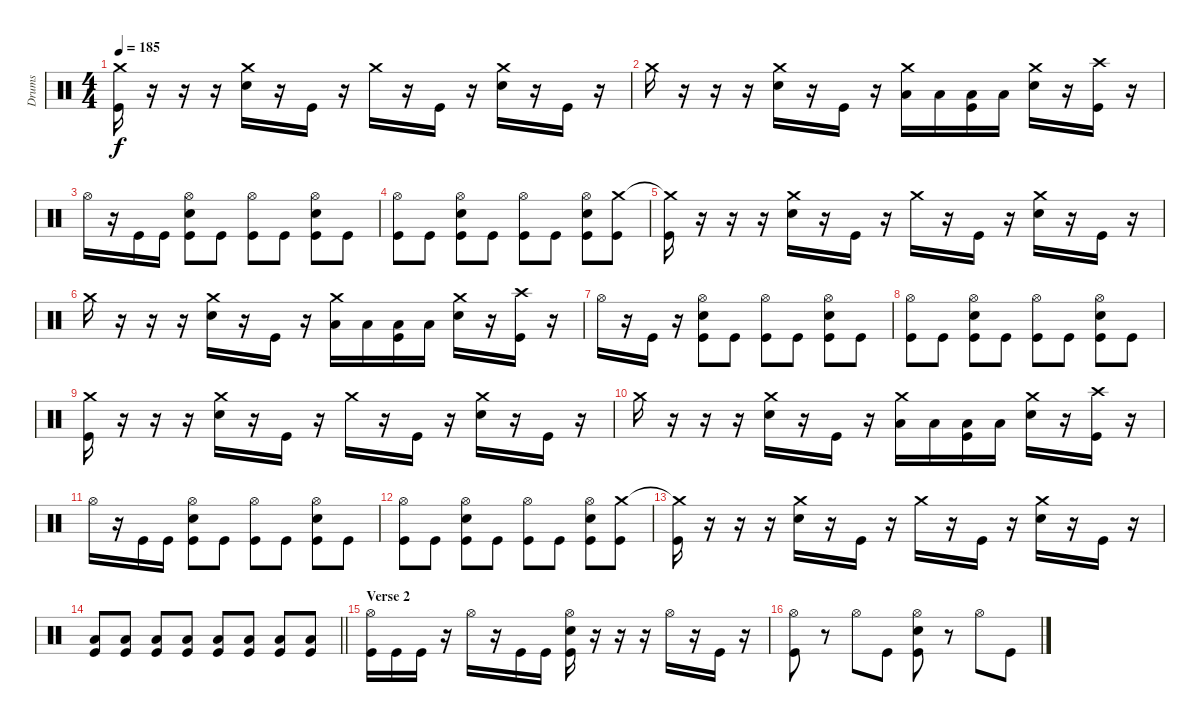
\track ("Drums" "Drums") {instrument percussion}
\staff {score}
\articulation defaults
\ts (4 4)
\tempo 185
\clef neutral
\ks c
("Crash medium (hit)" "Kick (hit)").16{dy f} r.16 r.16 r.16 ("Crash medium (hit)" "Snare (hit) 2").16 r.16 "Kick (hit)".16 r.16 "Crash medium (hit)".16 r.16 "Kick (hit)".16 r.16 ("Crash medium (hit)" "Snare (hit) 2").16 r.16 "Kick (hit)".16 r.16 |
"Crash medium (hit)".16 r.16 r.16 r.16 ("Crash medium (hit)" "Snare (hit) 2").16 r.16 "Kick (hit)".16 r.16 ("Crash medium (hit)" "Low Floor Tom (hit)").16 "Low Floor Tom (hit)".16 ("Low Floor Tom (hit)" "Kick (hit)").16 "Low Floor Tom (hit)".16 ("Crash medium (hit)" "Snare (hit) 2").16 r.16 ("Crash high (hit)" "Kick (hit)").16 r.16 |
"Hi-Hat (open)".16 r.16 "Kick (hit)".16 "Kick (hit)".16 ("Hi-Hat (open)" "Snare (hit) 2" "Kick (hit)").8 "Kick (hit)".8 ("Hi-Hat (open)" "Kick (hit)").8 "Kick (hit)".8 ("Hi-Hat (open)" "Snare (hit) 2" "Kick (hit)").8 "Kick (hit)".8 |
("Hi-Hat (open)" "Kick (hit)").8 "Kick (hit)".8 ("Hi-Hat (open)" "Snare (hit) 2" "Kick (hit)").8 "Kick (hit)".8 ("Hi-Hat (open)" "Kick (hit)").8 "Kick (hit)".8 ("Hi-Hat (open)" "Snare (hit) 2" "Kick (hit)").8 ("Crash medium (hit)" "Kick (hit)").8 |
("Crash medium (hit)"{t} "Kick (hit)").16 r.16 r.16 r.16 ("Crash medium (hit)" "Snare (hit) 2").16 r.16 "Kick (hit)".16 r.16 "Crash medium (hit)".16 r.16 "Kick (hit)".16 r.16 ("Crash medium (hit)" "Snare (hit) 2").16 r.16 "Kick (hit)".16 r.16 |
"Crash medium (hit)".16 r.16 r.16 r.16 ("Crash medium (hit)" "Snare (hit) 2").16 r.16 "Kick (hit)".16 r.16 ("Crash medium (hit)" "Low Floor Tom (hit)").16 "Low Floor Tom (hit)".16 ("Low Floor Tom (hit)" "Kick (hit)").16 "Low Floor Tom (hit)".16 ("Crash medium (hit)" "Snare (hit) 2").16 r.16 ("Crash high (hit)" "Kick (hit)").16 r.16 |
"Hi-Hat (open)".16 r.16 "Kick (hit)".16 r.16 ("Hi-Hat (open)" "Snare (hit) 2" "Kick (hit)").8 "Kick (hit)".8 ("Hi-Hat (open)" "Kick (hit)").8 "Kick (hit)".8 ("Hi-Hat (open)" "Snare (hit) 2" "Kick (hit)").8 "Kick (hit)".8 |
("Hi-Hat (open)" "Kick (hit)").8 "Kick (hit)".8 ("Hi-Hat (open)" "Snare (hit) 2" "Kick (hit)").8 "Kick (hit)".8 ("Hi-Hat (open)" "Kick (hit)").8 "Kick (hit)".8 ("Hi-Hat (open)" "Snare (hit) 2" "Kick (hit)").8 "Kick (hit)".8 |
("Crash medium (hit)" "Kick (hit)").16 r.16 r.16 r.16 ("Crash medium (hit)" "Snare (hit) 2").16 r.16 "Kick (hit)".16 r.16 "Crash medium (hit)".16 r.16 "Kick (hit)".16 r.16 ("Crash medium (hit)" "Snare (hit) 2").16 r.16 "Kick (hit)".16 r.16 |
"Crash medium (hit)".16 r.16 r.16 r.16 ("Crash medium (hit)" "Snare (hit) 2").16 r.16 "Kick (hit)".16 r.16 ("Crash medium (hit)" "Low Floor Tom (hit)").16 "Low Floor Tom (hit)".16 ("Low Floor Tom (hit)" "Kick (hit)").16 "Low Floor Tom (hit)".16 ("Crash medium (hit)" "Snare (hit) 2").16 r.16 ("Crash high (hit)" "Kick (hit)").16 r.16 |
"Hi-Hat (open)".16 r.16 "Kick (hit)".16 "Kick (hit)".16 ("Hi-Hat (open)" "Snare (hit) 2" "Kick (hit)").8 "Kick (hit)".8 ("Hi-Hat (open)" "Kick (hit)").8 "Kick (hit)".8 ("Hi-Hat (open)" "Snare (hit) 2" "Kick (hit)").8 "Kick (hit)".8 |
("Hi-Hat (open)" "Kick (hit)").8 "Kick (hit)".8 ("Hi-Hat (open)" "Snare (hit) 2" "Kick (hit)").8 "Kick (hit)".8 ("Hi-Hat (open)" "Kick (hit)").8 "Kick (hit)".8 ("Hi-Hat (open)" "Snare (hit) 2" "Kick (hit)").8 ("Crash medium (hit)" "Kick (hit)").8 |
("Crash medium (hit)"{t} "Kick (hit)").16 r.16 r.16 r.16 ("Crash medium (hit)" "Snare (hit) 2").16 r.16 "Kick (hit)".16 r.16 "Crash medium (hit)".16 r.16 "Kick (hit)".16 r.16 ("Crash medium (hit)" "Snare (hit) 2").16 r.16 "Kick (hit)".16 r.16 |
\barLineRight lightlight
("Low Floor Tom (hit)" "Kick (hit)").8 ("Low Floor Tom (hit)" "Kick (hit)").8 ("Low Floor Tom (hit)" "Kick (hit)").8 ("Low Floor Tom (hit)" "Kick (hit)").8 ("Low Floor Tom (hit)" "Kick (hit)").8 ("Low Floor Tom (hit)" "Kick (hit)").8 ("Low Floor Tom (hit)" "Kick (hit)").8 ("Low Floor Tom (hit)" "Kick (hit)").8 |
\section ("" "Verse 2")
("Hi-Hat (open)" "Kick (hit)").16 "Kick (hit)".16 "Kick (hit)".16 r.16 "Hi-Hat (open)".16 r.16 "Kick (hit)".16 "Kick (hit)".16 ("Hi-Hat (open)" "Snare (hit) 2" "Kick (hit)").16 r.16 r.16 r.16 "Hi-Hat (open)".16 r.16 "Kick (hit)".16 r.16 |
("Hi-Hat (open)" "Kick (hit)").8 r.8 "Hi-Hat (open)".8 "Kick (hit)".8 ("Hi-Hat (open)" "Snare (hit) 2" "Kick (hit)").8 r.8 "Hi-Hat (open)".8 "Kick (hit)".8
